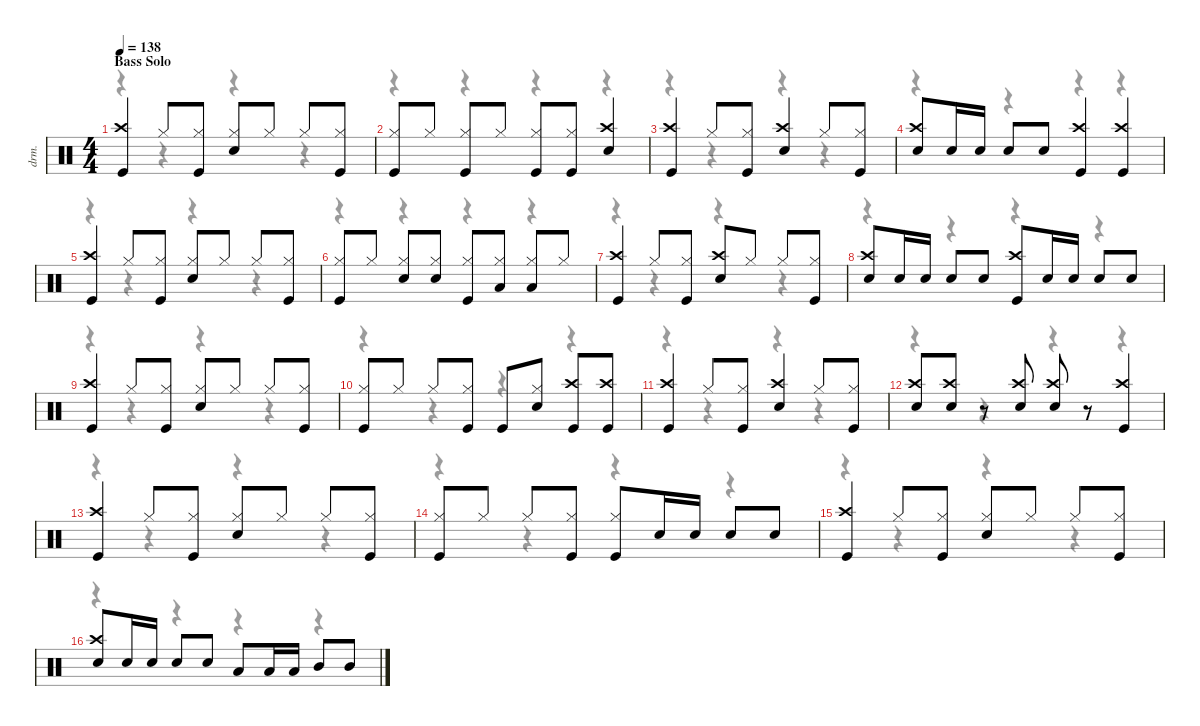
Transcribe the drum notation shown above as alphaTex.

\defaultSystemsLayout 4
\hideDynamics
\bracketExtendMode nobrackets
\track ("Drumkit" "drm.") {instrument percussion}
\staff {score}
\articulation defaults
\voice
\ts (4 4)
\section ("" "Bass Solo")
\tempo 138
\clef neutral
\ks c
("Crash high (hit)" "Kick (hit)").4{dy f} "Hi-Hat (closed)".8 ("Kick (hit)" "Hi-Hat (closed)").8 ("Hi-Hat (closed)" "Snare (hit) 2").8 "Hi-Hat (closed)".8 "Hi-Hat (closed)".8 ("Kick (hit)" "Hi-Hat (closed)").8 |
("Hi-Hat (closed)" "Kick (hit)").8 "Hi-Hat (closed)".8 ("Hi-Hat (closed)" "Kick (hit)").8 "Hi-Hat (closed)".8 ("Hi-Hat (closed)" "Kick (hit)").8 ("Hi-Hat (closed)" "Kick (hit)").8 ("Crash high (hit)" "Snare (hit) 2").4 |
("Kick (hit)" "Crash high (hit)").4 "Hi-Hat (closed)".8 ("Hi-Hat (closed)" "Kick (hit)").8 ("Crash high (hit)" "Snare (hit) 2").4 "Hi-Hat (closed)".8 ("Kick (hit)" "Hi-Hat (closed)").8 |
("Crash high (hit)" "Snare (hit) 2").8 "Snare (hit) 2".16 "Snare (hit) 2".16 "Snare (hit) 2".8 "Snare (hit) 2".8 ("Kick (hit)" "Crash high (hit)").4 ("Kick (hit)" "Crash high (hit)").4 |
("Kick (hit)" "Crash high (hit)").4 "Hi-Hat (closed)".8 ("Hi-Hat (closed)" "Kick (hit)").8 ("Snare (hit) 2" "Hi-Hat (closed)").8 "Hi-Hat (closed)".8 "Hi-Hat (closed)".8 ("Hi-Hat (closed)" "Kick (hit)").8 |
("Kick (hit)" "Hi-Hat (closed)").8 "Hi-Hat (closed)".8 ("Snare (hit) 2" "Hi-Hat (closed)").8 ("Snare (hit) 2" "Hi-Hat (closed)").8 ("Hi-Hat (closed)" "Kick (hit)").8 ("Low Tom (hit)" "Hi-Hat (closed)").8 ("Low Tom (hit)" "Hi-Hat (closed)").8 "Hi-Hat (closed)".8 |
("Crash high (hit)" "Kick (hit)").4 "Hi-Hat (closed)".8 ("Hi-Hat (closed)" "Kick (hit)").8 ("Crash high (hit)" "Snare (hit) 2").8 "Hi-Hat (closed)".8 "Hi-Hat (closed)".8 ("Kick (hit)" "Hi-Hat (closed)").8 |
("Crash high (hit)" "Snare (hit) 2").8 "Snare (hit) 2".16 "Snare (hit) 2".16 "Snare (hit) 2".8 "Snare (hit) 2".8 ("Crash high (hit)" "Kick (hit)").8 "Snare (hit) 2".16 "Snare (hit) 2".16 "Snare (hit) 2".8 "Snare (hit) 2".8 |
("Kick (hit)" "Crash high (hit)").4 "Hi-Hat (closed)".8 ("Hi-Hat (closed)" "Kick (hit)").8 ("Snare (hit) 2" "Hi-Hat (closed)").8 "Hi-Hat (closed)".8 "Hi-Hat (closed)".8 ("Hi-Hat (closed)" "Kick (hit)").8 |
("Kick (hit)" "Hi-Hat (closed)").8 "Hi-Hat (closed)".8 "Hi-Hat (closed)".8 ("Kick (hit)" "Hi-Hat (closed)").8 "Kick (hit)".8 ("Snare (hit) 2" "Hi-Hat (closed)").8 ("Crash high (hit)" "Kick (hit)").8 ("Crash high (hit)" "Kick (hit)").8 |
("Kick (hit)" "Crash high (hit)").4 "Hi-Hat (closed)".8 ("Hi-Hat (closed)" "Kick (hit)").8 ("Crash high (hit)" "Snare (hit) 2").4 "Hi-Hat (closed)".8 ("Hi-Hat (closed)" "Kick (hit)").8 |
("Crash high (hit)" "Snare (hit) 2").8 ("Crash high (hit)" "Snare (hit) 2").8 r.8 ("Snare (hit) 2" "Crash high (hit)").8 ("Snare (hit) 2" "Crash high (hit)").8 r.8 ("Kick (hit)" "Crash high (hit)").4 |
("Kick (hit)" "Crash high (hit)").4 "Hi-Hat (closed)".8 ("Hi-Hat (closed)" "Kick (hit)").8 ("Snare (hit) 2" "Hi-Hat (closed)").8 "Hi-Hat (closed)".8 "Hi-Hat (closed)".8 ("Hi-Hat (closed)" "Kick (hit)").8 |
("Kick (hit)" "Hi-Hat (closed)").8 "Hi-Hat (closed)".8 "Hi-Hat (closed)".8 ("Kick (hit)" "Hi-Hat (closed)").8 ("Kick (hit)" "Hi-Hat (closed)").8 "Snare (hit) 2".16 "Snare (hit) 2".16 "Snare (hit) 2".8 "Snare (hit) 2".8 |
("Kick (hit)" "Crash high (hit)").4 "Hi-Hat (closed)".8 ("Hi-Hat (closed)" "Kick (hit)").8 ("Snare (hit) 2" "Hi-Hat (closed)").8 "Hi-Hat (closed)".8 "Hi-Hat (closed)".8 ("Hi-Hat (closed)" "Kick (hit)").8 |
("Snare (hit) 2" "Crash high (hit)").8 "Snare (hit) 2".16 "Snare (hit) 2".16 "Snare (hit) 2".8 "Snare (hit) 2".8 "Low Tom (hit)".8 "Low Tom (hit)".16 "Low Tom (hit)".16 "Mid Tom (hit)".8 "Mid Tom (hit)".8
\voice
\clef neutral
\ottava regular
\simile none
\ks c
r.4{dy mf} r.4 r.4 r.4 |
r.4 r.4 r.4 r.4 |
r.4 r.4 r.4 r.4 |
r.4 r.4 r.4 r.4 |
r.4 r.4 r.4 r.4 |
r.4 r.4 r.4 r.4 |
r.4 r.4 r.4 r.4 |
r.4 r.4 r.4 r.4 |
r.4 r.4 r.4 r.4 |
r.4 r.4 r.4 r.4 |
r.4 r.4 r.4 r.4 |
r.4 r.4 r.4 r.4 |
r.4 r.4 r.4 r.4 |
r.4 r.4 r.4 r.4 |
r.4 r.4 r.4 r.4 |
r.4 r.4 r.4 r.4
